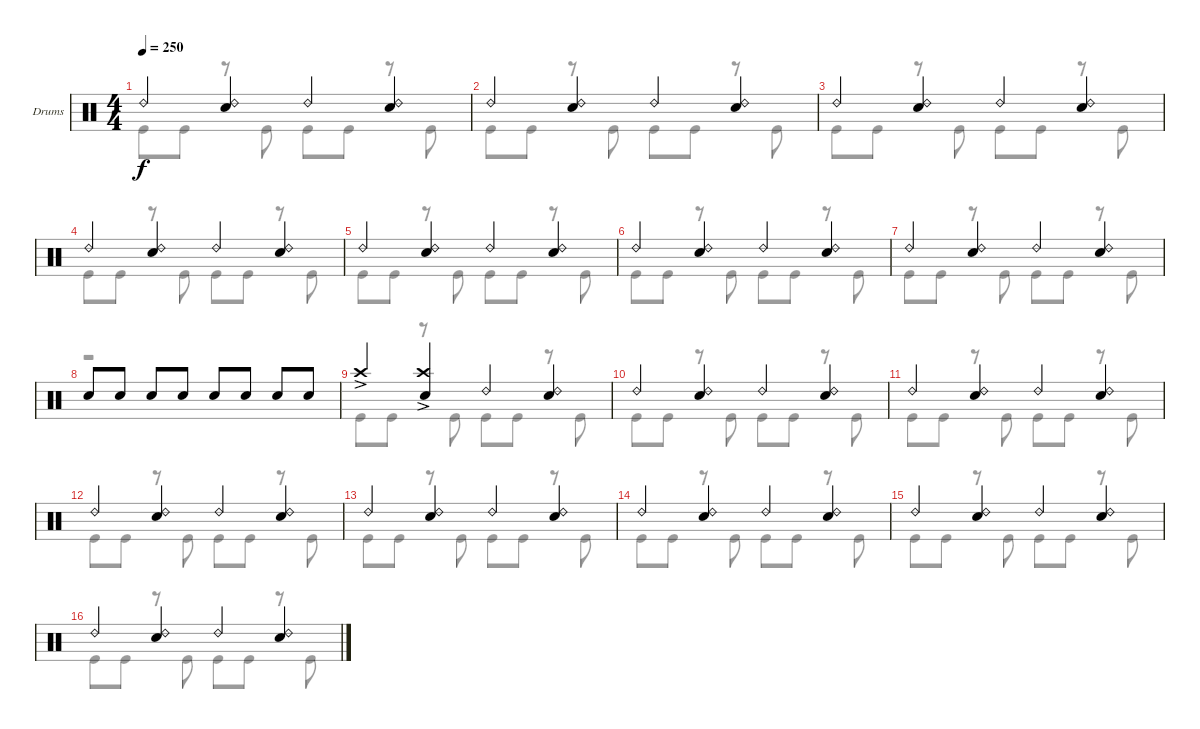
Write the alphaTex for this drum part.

\bracketExtendMode groupsimilarinstruments
\firstSystemTrackNameOrientation horizontal
\otherSystemsTrackNameOrientation horizontal
\track ("Drumkit" "Drums") {instrument percussion}
\staff {score}
\articulation defaults
\voice
\ts (4 4)
\tempo 250
\clef neutral
\ks c "Ride (bell) 2".4{dy f}
("Ride (bell) 2" "Snare (hit) 2").4 "Ride (bell) 2".4 ("Ride (bell) 2" "Snare (hit) 2").4 |
"Ride (bell) 2".4 ("Ride (bell) 2" "Snare (hit) 2").4 "Ride (bell) 2".4 ("Ride (bell) 2" "Snare (hit) 2").4 |
"Ride (bell) 2".4 ("Ride (bell) 2" "Snare (hit) 2").4 "Ride (bell) 2".4 ("Ride (bell) 2" "Snare (hit) 2").4 |
"Ride (bell) 2".4 ("Ride (bell) 2" "Snare (hit) 2").4 "Ride (bell) 2".4 ("Ride (bell) 2" "Snare (hit) 2").4 |
"Ride (bell) 2".4 ("Ride (bell) 2" "Snare (hit) 2").4 "Ride (bell) 2".4 ("Ride (bell) 2" "Snare (hit) 2").4 |
"Ride (bell) 2".4 ("Ride (bell) 2" "Snare (hit) 2").4 "Ride (bell) 2".4 ("Ride (bell) 2" "Snare (hit) 2").4 |
"Ride (bell) 2".4 ("Ride (bell) 2" "Snare (hit) 2").4 "Ride (bell) 2".4 ("Ride (bell) 2" "Snare (hit) 2").4 |
"Snare (hit) 2".8 "Snare (hit) 2".8 "Snare (hit) 2".8 "Snare (hit) 2".8 "Snare (hit) 2".8 "Snare (hit) 2".8 "Snare (hit) 2".8 "Snare (hit) 2".8 |
"Crash high (hit)"{ac}.4 ("Crash high (hit)"{ac} "Snare (hit) 2").4 "Ride (bell) 2".4 ("Ride (bell) 2" "Snare (hit) 2").4 |
"Ride (bell) 2".4 ("Ride (bell) 2" "Snare (hit) 2").4 "Ride (bell) 2".4 ("Ride (bell) 2" "Snare (hit) 2").4 |
"Ride (bell) 2".4 ("Ride (bell) 2" "Snare (hit) 2").4 "Ride (bell) 2".4 ("Ride (bell) 2" "Snare (hit) 2").4 |
"Ride (bell) 2".4 ("Ride (bell) 2" "Snare (hit) 2").4 "Ride (bell) 2".4 ("Ride (bell) 2" "Snare (hit) 2").4 |
"Ride (bell) 2".4 ("Ride (bell) 2" "Snare (hit) 2").4 "Ride (bell) 2".4 ("Ride (bell) 2" "Snare (hit) 2").4 |
"Ride (bell) 2".4 ("Ride (bell) 2" "Snare (hit) 2").4 "Ride (bell) 2".4 ("Ride (bell) 2" "Snare (hit) 2").4 |
"Ride (bell) 2".4 ("Ride (bell) 2" "Snare (hit) 2").4 "Ride (bell) 2".4 ("Ride (bell) 2" "Snare (hit) 2").4 |
"Ride (bell) 2".4 ("Ride (bell) 2" "Snare (hit) 2").4 "Ride (bell) 2".4 ("Ride (bell) 2" "Snare (hit) 2").4
\voice
\clef neutral
\ottava regular
\simile none
\ks c "Kick (hit)".8{dy f} "Kick (hit)".8
r.8 "Kick (hit)".8 "Kick (hit)".8 "Kick (hit)".8 r.8 "Kick (hit)".8 |
"Kick (hit)".8 "Kick (hit)".8 r.8 "Kick (hit)".8 "Kick (hit)".8 "Kick (hit)".8 r.8 "Kick (hit)".8 |
"Kick (hit)".8 "Kick (hit)".8 r.8 "Kick (hit)".8 "Kick (hit)".8 "Kick (hit)".8 r.8 "Kick (hit)".8 |
"Kick (hit)".8 "Kick (hit)".8 r.8 "Kick (hit)".8 "Kick (hit)".8 "Kick (hit)".8 r.8 "Kick (hit)".8 |
"Kick (hit)".8 "Kick (hit)".8 r.8 "Kick (hit)".8 "Kick (hit)".8 "Kick (hit)".8 r.8 "Kick (hit)".8 |
"Kick (hit)".8 "Kick (hit)".8 r.8 "Kick (hit)".8 "Kick (hit)".8 "Kick (hit)".8 r.8 "Kick (hit)".8 |
"Kick (hit)".8 "Kick (hit)".8 r.8 "Kick (hit)".8 "Kick (hit)".8 "Kick (hit)".8 r.8 "Kick (hit)".8 |
r.1 |
"Kick (hit)".8 "Kick (hit)".8 r.8 "Kick (hit)".8 "Kick (hit)".8 "Kick (hit)".8 r.8 "Kick (hit)".8 |
"Kick (hit)".8 "Kick (hit)".8 r.8 "Kick (hit)".8 "Kick (hit)".8 "Kick (hit)".8 r.8 "Kick (hit)".8 |
"Kick (hit)".8 "Kick (hit)".8 r.8 "Kick (hit)".8 "Kick (hit)".8 "Kick (hit)".8 r.8 "Kick (hit)".8 |
"Kick (hit)".8 "Kick (hit)".8 r.8 "Kick (hit)".8 "Kick (hit)".8 "Kick (hit)".8 r.8 "Kick (hit)".8 |
"Kick (hit)".8 "Kick (hit)".8 r.8 "Kick (hit)".8 "Kick (hit)".8 "Kick (hit)".8 r.8 "Kick (hit)".8 |
"Kick (hit)".8 "Kick (hit)".8 r.8 "Kick (hit)".8 "Kick (hit)".8 "Kick (hit)".8 r.8 "Kick (hit)".8 |
"Kick (hit)".8 "Kick (hit)".8 r.8 "Kick (hit)".8 "Kick (hit)".8 "Kick (hit)".8 r.8 "Kick (hit)".8 |
"Kick (hit)".8 "Kick (hit)".8 r.8 "Kick (hit)".8 "Kick (hit)".8 "Kick (hit)".8 r.8 "Kick (hit)".8
